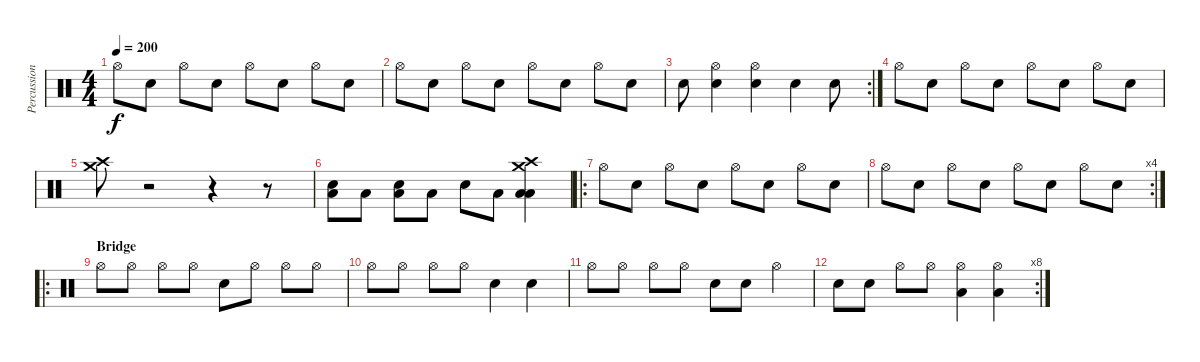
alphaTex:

\track ("Percussion" "Percussion") {instrument percussion}
\staff {score}
\articulation defaults
\ts (4 4)
\tempo 200
\clef neutral
\ks c "Hi-Hat (open)".8{dy f} "Snare (hit) 2".8 "Hi-Hat (open)".8 "Snare (hit) 2".8 "Hi-Hat (open)".8 "Snare (hit) 2".8 "Hi-Hat (open)".8 "Snare (hit) 2".8
|
"Hi-Hat (open)".8 "Snare (hit) 2".8 "Hi-Hat (open)".8 "Snare (hit) 2".8 "Hi-Hat (open)".8 "Snare (hit) 2".8 "Hi-Hat (open)".8 "Snare (hit) 2".8 |
\rc 2 "Electric Snare (hit)".8
("Hi-Hat (open)" "Snare (hit) 2").4 ("Hi-Hat (open)" "Snare (hit) 2").4 "Snare (hit) 2".4 "Snare (hit) 2".8 |
"Hi-Hat (open)".8 "Snare (hit) 2".8 "Hi-Hat (open)".8 "Snare (hit) 2".8 "Hi-Hat (open)".8 "Snare (hit) 2".8 "Hi-Hat (open)".8 "Snare (hit) 2".8 |
("Crash medium (hit)" "Crash high (hit)").8 r.2 r.4 r.8 |
("Snare (hit) 2" "Low Tom (hit)").8 "Low Tom (hit)".8 ("Electric Snare (hit)" "Low Tom (hit)").8 "Low Tom (hit)".8 "Snare (hit) 2".8 "Low Tom (hit)".8 ("Crash high (hit)" "Low Floor Tom (hit)" "Low Tom (hit)" "Crash medium (hit)").4 |
\ro "Hi-Hat (open)".8 "Snare (hit) 2".8 "Hi-Hat (open)".8 "Snare (hit) 2".8 "Hi-Hat (open)".8 "Snare (hit) 2".8 "Hi-Hat (open)".8 "Snare (hit) 2".8
|
\rc 4 "Hi-Hat (open)".8 "Snare (hit) 2".8 "Hi-Hat (open)".8 "Snare (hit) 2".8 "Hi-Hat (open)".8 "Snare (hit) 2".8 "Hi-Hat (open)".8 "Snare (hit) 2".8
|
\ro
\section ("" "Bridge")
"Hi-Hat (open)".8 "Hi-Hat (open)".8 "Hi-Hat (open)".8 "Hi-Hat (open)".8 "Electric Snare (hit)".8 "Hi-Hat (open)".8 "Hi-Hat (open)".8 "Hi-Hat (open)".8 |
"Hi-Hat (open)".8 "Hi-Hat (open)".8 "Hi-Hat (open)".8 "Hi-Hat (open)".8 "Electric Snare (hit)".4 "Electric Snare (hit)".4 |
"Hi-Hat (open)".8 "Hi-Hat (open)".8 "Hi-Hat (open)".8 "Hi-Hat (open)".8 "Snare (hit) 2".8 "Electric Snare (hit)".8 "Hi-Hat (open)".4 |
\rc 8 "Electric Snare (hit)".8 "Snare (hit) 2".8 "Hi-Hat (open)".8 "Hi-Hat (open)".8
("Hi-Hat (open)" "Low Floor Tom (hit)").4 ("Hi-Hat (open)" "Low Floor Tom (hit)").4
